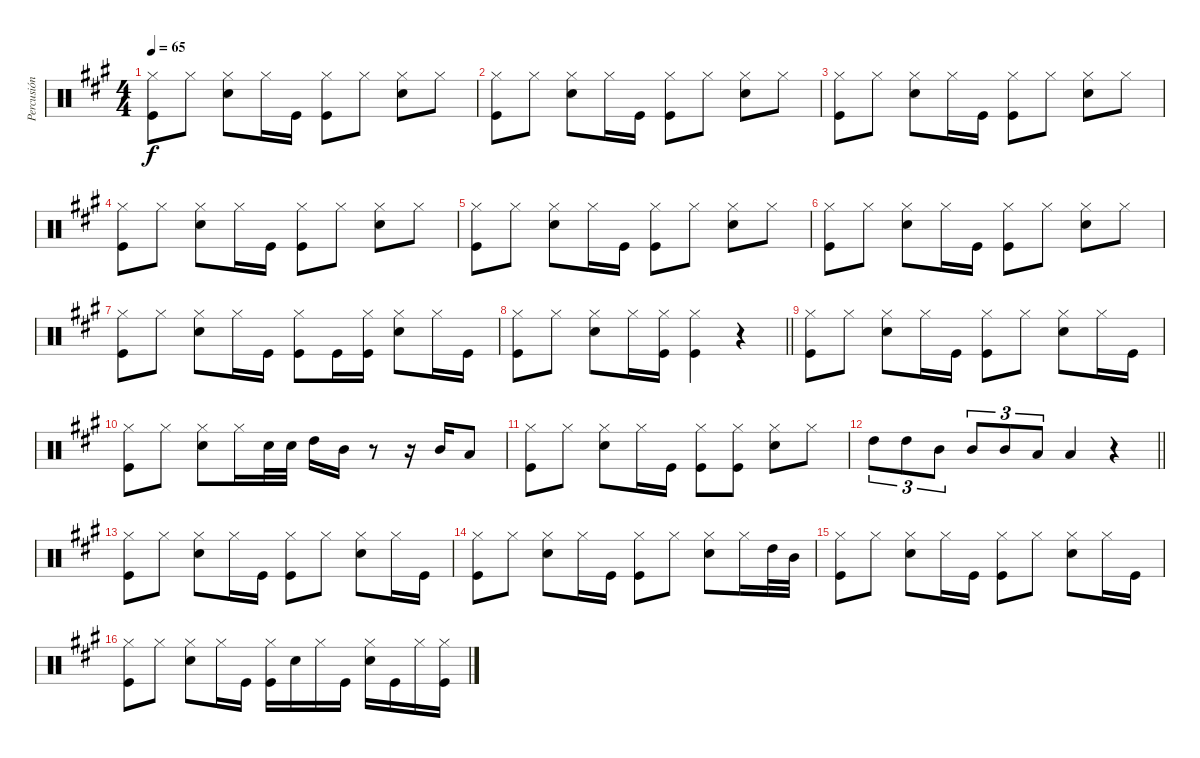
\track ("Percusión" "Percusión") {instrument percussion}
\staff {score}
\articulation defaults
\ts (4 4)
\tempo 65
\clef neutral
\ks f#minor
("Hi-Hat (closed)" "Kick (hit)").8{dy f} "Hi-Hat (closed)".8 ("Hi-Hat (closed)" "Snare (hit) 2").8 "Hi-Hat (closed)".16 "Kick (hit)".16 ("Hi-Hat (closed)" "Kick (hit)").8 "Hi-Hat (closed)".8 ("Hi-Hat (closed)" "Snare (hit) 2").8 "Hi-Hat (closed)".8 |
("Hi-Hat (closed)" "Kick (hit)").8 "Hi-Hat (closed)".8 ("Hi-Hat (closed)" "Snare (hit) 2").8 "Hi-Hat (closed)".16 "Kick (hit)".16 ("Hi-Hat (closed)" "Kick (hit)").8 "Hi-Hat (closed)".8 ("Hi-Hat (closed)" "Snare (hit) 2").8 "Hi-Hat (closed)".8 |
("Hi-Hat (closed)" "Kick (hit)").8 "Hi-Hat (closed)".8 ("Hi-Hat (closed)" "Snare (hit) 2").8 "Hi-Hat (closed)".16 "Kick (hit)".16 ("Hi-Hat (closed)" "Kick (hit)").8 "Hi-Hat (closed)".8 ("Hi-Hat (closed)" "Snare (hit) 2").8 "Hi-Hat (closed)".8 |
("Hi-Hat (closed)" "Kick (hit)").8 "Hi-Hat (closed)".8 ("Hi-Hat (closed)" "Snare (hit) 2").8 "Hi-Hat (closed)".16 "Kick (hit)".16 ("Hi-Hat (closed)" "Kick (hit)").8 "Hi-Hat (closed)".8 ("Hi-Hat (closed)" "Snare (hit) 2").8 "Hi-Hat (closed)".8 |
("Hi-Hat (closed)" "Kick (hit)").8 "Hi-Hat (closed)".8 ("Hi-Hat (closed)" "Snare (hit) 2").8 "Hi-Hat (closed)".16 "Kick (hit)".16 ("Hi-Hat (closed)" "Kick (hit)").8 "Hi-Hat (closed)".8 ("Hi-Hat (closed)" "Snare (hit) 2").8 "Hi-Hat (closed)".8 |
("Hi-Hat (closed)" "Kick (hit)").8 "Hi-Hat (closed)".8 ("Hi-Hat (closed)" "Snare (hit) 2").8 "Hi-Hat (closed)".16 "Kick (hit)".16 ("Hi-Hat (closed)" "Kick (hit)").8 "Hi-Hat (closed)".8 ("Hi-Hat (closed)" "Snare (hit) 2").8 "Hi-Hat (closed)".8 |
("Hi-Hat (closed)" "Kick (hit)").8 "Hi-Hat (closed)".8 ("Hi-Hat (closed)" "Snare (hit) 2").8 "Hi-Hat (closed)".16 "Kick (hit)".16 ("Hi-Hat (closed)" "Kick (hit)").8 "Kick (hit)".16 ("Hi-Hat (closed)" "Kick (hit)").16 ("Hi-Hat (closed)" "Snare (hit) 2").8 "Hi-Hat (closed)".16 "Kick (hit)".16 |
\barLineRight lightlight
("Hi-Hat (closed)" "Kick (hit)").8 "Hi-Hat (closed)".8 ("Hi-Hat (closed)" "Snare (hit) 2").8 "Hi-Hat (closed)".16 ("Hi-Hat (closed)" "Kick (hit)").16 ("Hi-Hat (closed)" "Kick (hit)").4 r.4 |
("Hi-Hat (closed)" "Kick (hit)").8 "Hi-Hat (closed)".8 ("Hi-Hat (closed)" "Snare (hit) 2").8 "Hi-Hat (closed)".16 "Kick (hit)".16 ("Hi-Hat (closed)" "Kick (hit)").8 "Hi-Hat (closed)".8 ("Hi-Hat (closed)" "Snare (hit) 2").8 "Hi-Hat (closed)".16 "Kick (hit)".16 |
("Hi-Hat (closed)" "Kick (hit)").8 "Hi-Hat (closed)".8 ("Hi-Hat (closed)" "Snare (hit) 2").8 "Hi-Hat (closed)".16 "Snare (hit) 2".32 "Snare (hit) 2".32 "High Tom (hit)".16 "Mid Tom (hit)".16 r.8 r.16 "Mid Tom (hit)".16 "Low Tom (hit)".8 |
("Hi-Hat (closed)" "Kick (hit)").8 "Hi-Hat (closed)".8 ("Hi-Hat (closed)" "Snare (hit) 2").8 "Hi-Hat (closed)".16 "Kick (hit)".16 ("Hi-Hat (closed)" "Kick (hit)").8 ("Hi-Hat (closed)" "Kick (hit)").8 ("Hi-Hat (closed)" "Snare (hit) 2").8 "Hi-Hat (closed)".8 |
\barLineRight lightlight "High Tom (hit)".8{tu (3 2)} "High Tom (hit)".8{tu (3 2)} "Mid Tom (hit)".8{tu (3 2)} "Mid Tom (hit)".8{tu (3 2)} "Mid Tom (hit)".8{tu (3 2)} "Low Tom (hit)".8{tu (3 2)} "Low Tom (hit)".4
r.4 |
("Hi-Hat (closed)" "Kick (hit)").8 "Hi-Hat (closed)".8 ("Hi-Hat (closed)" "Snare (hit) 2").8 "Hi-Hat (closed)".16 "Kick (hit)".16 ("Hi-Hat (closed)" "Kick (hit)").8 "Hi-Hat (closed)".8 ("Hi-Hat (closed)" "Snare (hit) 2").8 "Hi-Hat (closed)".16 "Kick (hit)".16 |
("Hi-Hat (closed)" "Kick (hit)").8 "Hi-Hat (closed)".8 ("Hi-Hat (closed)" "Snare (hit) 2").8 "Hi-Hat (closed)".16 "Kick (hit)".16 ("Hi-Hat (closed)" "Kick (hit)").8 "Hi-Hat (closed)".8 ("Hi-Hat (closed)" "Snare (hit) 2").8 "Hi-Hat (closed)".16 "High Tom (hit)".32 "Mid Tom (hit)".32 |
("Hi-Hat (closed)" "Kick (hit)").8 "Hi-Hat (closed)".8 ("Hi-Hat (closed)" "Snare (hit) 2").8 "Hi-Hat (closed)".16 "Kick (hit)".16 ("Hi-Hat (closed)" "Kick (hit)").8 "Hi-Hat (closed)".8 ("Hi-Hat (closed)" "Snare (hit) 2").8 "Hi-Hat (closed)".16 "Kick (hit)".16 |
("Hi-Hat (closed)" "Kick (hit)").8 "Hi-Hat (closed)".8 ("Hi-Hat (closed)" "Snare (hit) 2").8 "Hi-Hat (closed)".16 "Kick (hit)".16 ("Hi-Hat (closed)" "Kick (hit)").16 "Snare (hit) 2".16 "Hi-Hat (closed)".16 "Kick (hit)".16 ("Hi-Hat (closed)" "Snare (hit) 2").16 "Kick (hit)".16 "Hi-Hat (closed)".16 ("Hi-Hat (closed)" "Kick (hit)").16
